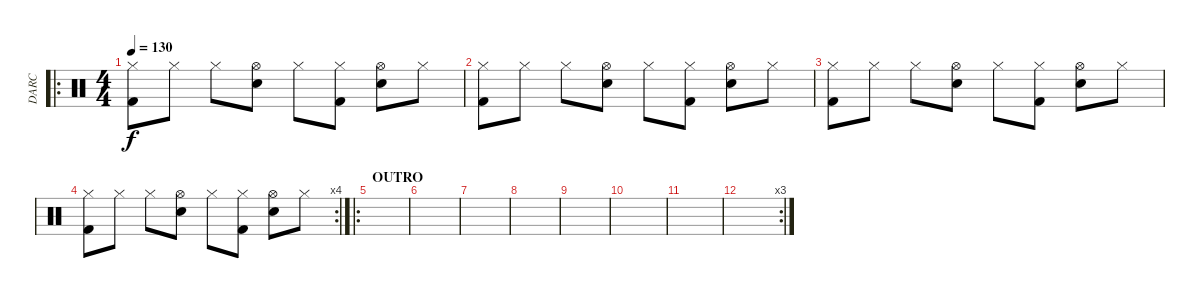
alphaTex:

\track ("DARC" "DARC") {instrument percussion}
\staff {score}
\articulation defaults
\ro
\ts (4 4)
\tempo 130
\clef neutral
\ks c
("Kick (hit) 2" "Hi-Hat (closed)").8{dy f} "Hi-Hat (closed)".8 "Hi-Hat (closed)".8 ("Snare (hit) 2" "Hi-Hat (open)").8 "Hi-Hat (closed)".8 ("Kick (hit) 2" "Hi-Hat (closed)").8 ("Snare (hit) 2" "Hi-Hat (open)").8 "Hi-Hat (closed)".8 |
("Kick (hit) 2" "Hi-Hat (closed)").8 "Hi-Hat (closed)".8 "Hi-Hat (closed)".8 ("Snare (hit) 2" "Hi-Hat (open)").8 "Hi-Hat (closed)".8 ("Kick (hit) 2" "Hi-Hat (closed)").8 ("Snare (hit) 2" "Hi-Hat (open)").8 "Hi-Hat (closed)".8 |
("Kick (hit) 2" "Hi-Hat (closed)").8 "Hi-Hat (closed)".8 "Hi-Hat (closed)".8 ("Snare (hit) 2" "Hi-Hat (open)").8 "Hi-Hat (closed)".8 ("Kick (hit) 2" "Hi-Hat (closed)").8 ("Snare (hit) 2" "Hi-Hat (open)").8 "Hi-Hat (closed)".8 |
\rc 4
("Kick (hit) 2" "Hi-Hat (closed)").8 "Hi-Hat (closed)".8 "Hi-Hat (closed)".8 ("Snare (hit) 2" "Hi-Hat (open)").8 "Hi-Hat (closed)".8 ("Kick (hit) 2" "Hi-Hat (closed)").8 ("Snare (hit) 2" "Hi-Hat (open)").8 "Hi-Hat (closed)".8 |
\ro
\section ("" "OUTRO")
|
|
|
|
|
|
|
\rc 3
